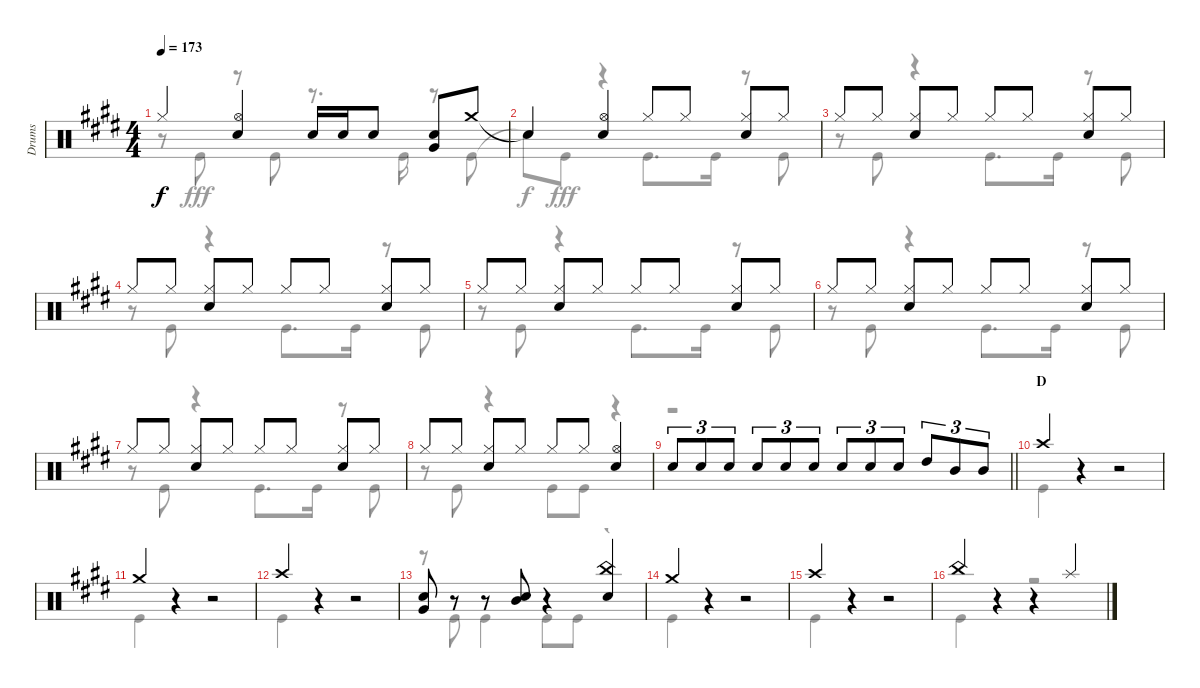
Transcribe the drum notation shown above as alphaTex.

\track ("Drums" "Drums") {instrument percussion}
\staff {score}
\articulation defaults
\voice
\ts (4 4)
\tempo 173
\clef neutral
\ks e "Hi-Hat (closed)".4{dy f}
("Hi-Hat (open)" "Snare (hit) 2").4 "Snare (hit) 2".16 "Snare (hit) 2".16 "Snare (hit) 2".8 ("Snare (hit) 2" "Very Low Tom (hit)").8 "Crash medium (hit)".8 |
"Snare (hit)"{t}.4 ("Hi-Hat (open)" "Snare (hit) 2").4 "Hi-Hat (closed)".8 "Hi-Hat (closed)".8 ("Hi-Hat (closed)" "Snare (hit) 2").8 "Hi-Hat (closed)".8 |
"Hi-Hat (closed)".8 "Hi-Hat (closed)".8 ("Hi-Hat (closed)" "Snare (hit) 2").8 "Hi-Hat (closed)".8 "Hi-Hat (closed)".8 "Hi-Hat (closed)".8 ("Hi-Hat (closed)" "Snare (hit) 2").8 "Hi-Hat (closed)".8 |
"Hi-Hat (closed)".8 "Hi-Hat (closed)".8 ("Hi-Hat (closed)" "Snare (hit) 2").8 "Hi-Hat (closed)".8 "Hi-Hat (closed)".8 "Hi-Hat (closed)".8 ("Hi-Hat (closed)" "Snare (hit) 2").8 "Hi-Hat (closed)".8 |
"Hi-Hat (closed)".8 "Hi-Hat (closed)".8 ("Hi-Hat (closed)" "Snare (hit) 2").8 "Hi-Hat (closed)".8 "Hi-Hat (closed)".8 "Hi-Hat (closed)".8 ("Hi-Hat (closed)" "Snare (hit) 2").8 "Hi-Hat (closed)".8 |
"Hi-Hat (closed)".8 "Hi-Hat (closed)".8 ("Hi-Hat (closed)" "Snare (hit) 2").8 "Hi-Hat (closed)".8 "Hi-Hat (closed)".8 "Hi-Hat (closed)".8 ("Hi-Hat (closed)" "Snare (hit) 2").8 "Hi-Hat (closed)".8 |
"Hi-Hat (closed)".8 "Hi-Hat (closed)".8 ("Hi-Hat (closed)" "Snare (hit) 2").8 "Hi-Hat (closed)".8 "Hi-Hat (closed)".8 "Hi-Hat (closed)".8 ("Hi-Hat (closed)" "Snare (hit) 2").8 "Hi-Hat (closed)".8 |
"Hi-Hat (closed)".8 "Hi-Hat (closed)".8 ("Hi-Hat (closed)" "Snare (hit) 2").8 "Hi-Hat (closed)".8 "Hi-Hat (closed)".8 "Hi-Hat (closed)".8 ("Hi-Hat (open)" "Snare (hit) 2").4 |
\barLineRight lightlight "Snare (hit) 2".8{tu (3 2)} "Snare (hit) 2".8{tu (3 2)} "Snare (hit) 2".8{tu (3 2)} "Snare (hit) 2".8{tu (3 2)} "Snare (hit) 2".8{tu (3 2)} "Snare (hit) 2".8{tu (3 2)} "Snare (hit) 2".8{tu (3 2)} "Snare (hit) 2".8{tu (3 2)} "Snare (hit) 2".8{tu (3 2)} "High Tom (hit)".8{tu (3 2)} "Mid Tom (hit)".8{tu (3 2)} "Mid Tom (hit)".8{tu (3 2)}
|
\section ("" "D")
"Crash high (hit)".4 r.4 r.2 |
"Crash medium (hit)".4 r.4 r.2 |
"Crash high (hit)".4 r.4 r.2 |
("Snare (hit) 2" "Very Low Tom (hit)").8 r.8 r.8 ("Mid Tom (hit)" "Snare (hit) 2").8 r.4 ("China (hit)" "Snare (hit) 2").4 |
"Crash medium (hit)".4 r.4 r.2 |
"Crash high (hit)".4 r.4 r.2 |
"China (hit)".4 r.4 r.4 "Splash (hit)".4
\voice
\clef neutral
\ottava regular
\simile none
\ks e
r.8{dy fff} "Kick (hit)".8 r.8 "Kick (hit)".8 r.8{d} "Kick (hit)".16 r.8 "Kick (hit)".8 |
"Snare (hit)"{t}.8{dy f} "Kick (hit)".8{dy fff} r.4 "Kick (hit)".8{d} "Kick (hit)".16 r.8 "Kick (hit)".8 |
r.8 "Kick (hit)".8 r.4 "Kick (hit)".8{d} "Kick (hit)".16 r.8 "Kick (hit)".8 |
r.8 "Kick (hit)".8 r.4 "Kick (hit)".8{d} "Kick (hit)".16 r.8 "Kick (hit)".8 |
r.8 "Kick (hit)".8 r.4 "Kick (hit)".8{d} "Kick (hit)".16 r.8 "Kick (hit)".8 |
r.8 "Kick (hit)".8 r.4 "Kick (hit)".8{d} "Kick (hit)".16 r.8 "Kick (hit)".8 |
r.8 "Kick (hit)".8 r.4 "Kick (hit)".8{d} "Kick (hit)".16 r.8 "Kick (hit)".8 |
r.8 "Kick (hit)".8 r.4 "Kick (hit)".8 "Kick (hit)".8 r.4 |
\barLineRight lightlight
r.1 |
"Kick (hit)".4 r.4 r.2 |
"Kick (hit)".4 r.4 r.2 |
"Kick (hit)".4 r.4 r.2 |
r.8 "Kick (hit)".8 "Kick (hit)".4 "Kick (hit)".8 "Kick (hit)".8 r.4 |
"Kick (hit)".4 r.4 r.2 |
"Kick (hit)".4 r.4 r.2 |
"Kick (hit)".4 r.4 r.2
